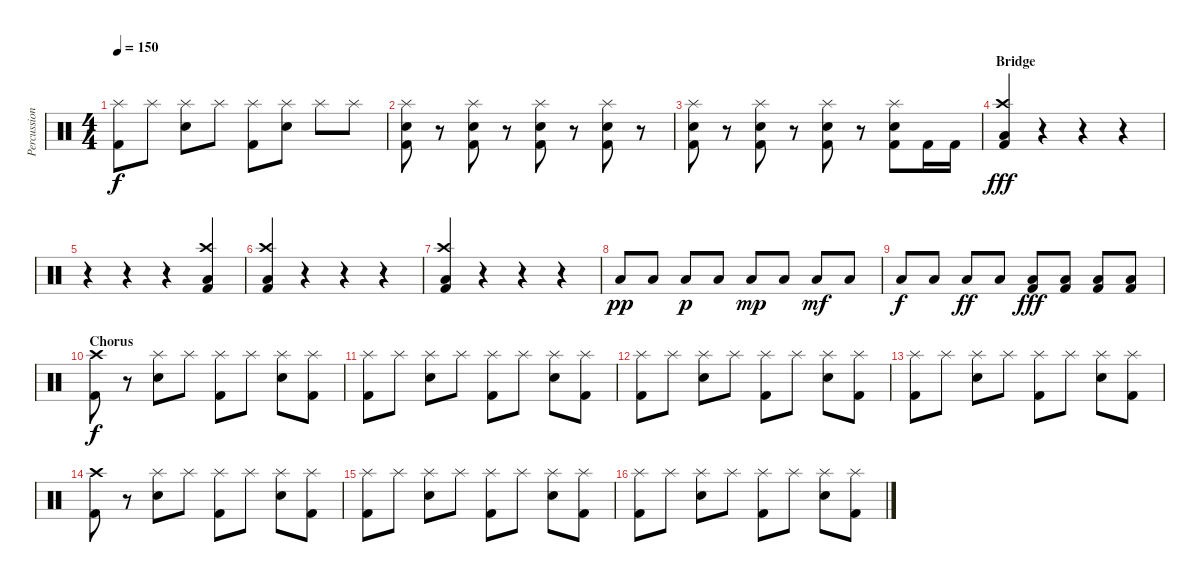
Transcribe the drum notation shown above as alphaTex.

\track ("Percussion" "Percussion") {instrument percussion}
\staff {score}
\articulation defaults
\ts (4 4)
\tempo 150
\clef neutral
\ks c
("Splash (hit)" "Kick (hit) 2").8{dy f} "Splash (hit)".8 ("Splash (hit)" "Electric Snare (hit)").8 "Splash (hit)".8 ("Splash (hit)" "Kick (hit) 2").8 ("Splash (hit)" "Electric Snare (hit)").8 "Splash (hit)".8 "Splash (hit)".8 |
("Splash (hit)" "Electric Snare (hit)" "Kick (hit) 2").8 r.8 ("Splash (hit)" "Electric Snare (hit)" "Kick (hit) 2").8 r.8 ("Splash (hit)" "Electric Snare (hit)" "Kick (hit) 2").8 r.8 ("Splash (hit)" "Electric Snare (hit)" "Kick (hit) 2").8 r.8 |
("Splash (hit)" "Electric Snare (hit)" "Kick (hit) 2").8 r.8 ("Splash (hit)" "Electric Snare (hit)" "Kick (hit) 2").8 r.8 ("Splash (hit)" "Electric Snare (hit)" "Kick (hit) 2").8 r.8 ("Splash (hit)" "Electric Snare (hit)" "Kick (hit) 2").8 "Kick (hit) 2".16 "Kick (hit) 2".16 |
\section ("" "Bridge")
("Crash high (hit)" "Low Floor Tom (hit)" "Kick (hit) 2").4{dy fff} r.4 r.4 r.4 |
r.4 r.4 r.4 ("Crash high (hit)" "Low Floor Tom (hit)" "Kick (hit) 2").4 |
("Crash high (hit)" "Low Floor Tom (hit)" "Kick (hit) 2").4 r.4 r.4 r.4 |
("Crash high (hit)" "Low Floor Tom (hit)" "Kick (hit) 2").4 r.4 r.4 r.4 |
"Low Floor Tom (hit)".8{dy pp} "Low Floor Tom (hit)".8 "Low Floor Tom (hit)".8{dy p} "Low Floor Tom (hit)".8 "Low Floor Tom (hit)".8{dy mp} "Low Floor Tom (hit)".8 "Low Floor Tom (hit)".8{dy mf} "Low Floor Tom (hit)".8 |
"Low Floor Tom (hit)".8{dy f} "Low Floor Tom (hit)".8 "Low Floor Tom (hit)".8{dy ff} "Low Floor Tom (hit)".8 ("Low Floor Tom (hit)" "Kick (hit) 2").8{dy fff} ("Low Floor Tom (hit)" "Kick (hit) 2").8 ("Low Floor Tom (hit)" "Kick (hit) 2").8 ("Low Floor Tom (hit)" "Kick (hit) 2").8 |
\section ("" "Chorus")
("Crash high (hit)" "Kick (hit) 2").8{dy f} r.8 ("Splash (hit)" "Electric Snare (hit)").8 "Splash (hit)".8 ("Splash (hit)" "Kick (hit) 2").8 "Splash (hit)".8 ("Splash (hit)" "Electric Snare (hit)").8 ("Splash (hit)" "Kick (hit) 2").8 |
("Splash (hit)" "Kick (hit) 2").8 "Splash (hit)".8 ("Splash (hit)" "Electric Snare (hit)").8 "Splash (hit)".8 ("Splash (hit)" "Kick (hit) 2").8 "Splash (hit)".8 ("Splash (hit)" "Electric Snare (hit)").8 ("Splash (hit)" "Kick (hit) 2").8 |
("Splash (hit)" "Kick (hit) 2").8 "Splash (hit)".8 ("Splash (hit)" "Electric Snare (hit)").8 "Splash (hit)".8 ("Splash (hit)" "Kick (hit) 2").8 "Splash (hit)".8 ("Splash (hit)" "Electric Snare (hit)").8 ("Splash (hit)" "Kick (hit) 2").8 |
("Splash (hit)" "Kick (hit) 2").8 "Splash (hit)".8 ("Splash (hit)" "Electric Snare (hit)").8 "Splash (hit)".8 ("Splash (hit)" "Kick (hit) 2").8 "Splash (hit)".8 ("Splash (hit)" "Electric Snare (hit)").8 ("Splash (hit)" "Kick (hit) 2").8 |
("Crash high (hit)" "Kick (hit) 2").8 r.8 ("Splash (hit)" "Electric Snare (hit)").8 "Splash (hit)".8 ("Splash (hit)" "Kick (hit) 2").8 "Splash (hit)".8 ("Splash (hit)" "Electric Snare (hit)").8 ("Splash (hit)" "Kick (hit) 2").8 |
("Splash (hit)" "Kick (hit) 2").8 "Splash (hit)".8 ("Splash (hit)" "Electric Snare (hit)").8 "Splash (hit)".8 ("Splash (hit)" "Kick (hit) 2").8 "Splash (hit)".8 ("Splash (hit)" "Electric Snare (hit)").8 ("Splash (hit)" "Kick (hit) 2").8 |
("Splash (hit)" "Kick (hit) 2").8 "Splash (hit)".8 ("Splash (hit)" "Electric Snare (hit)").8 "Splash (hit)".8 ("Splash (hit)" "Kick (hit) 2").8 "Splash (hit)".8 ("Splash (hit)" "Electric Snare (hit)").8 ("Splash (hit)" "Kick (hit) 2").8
